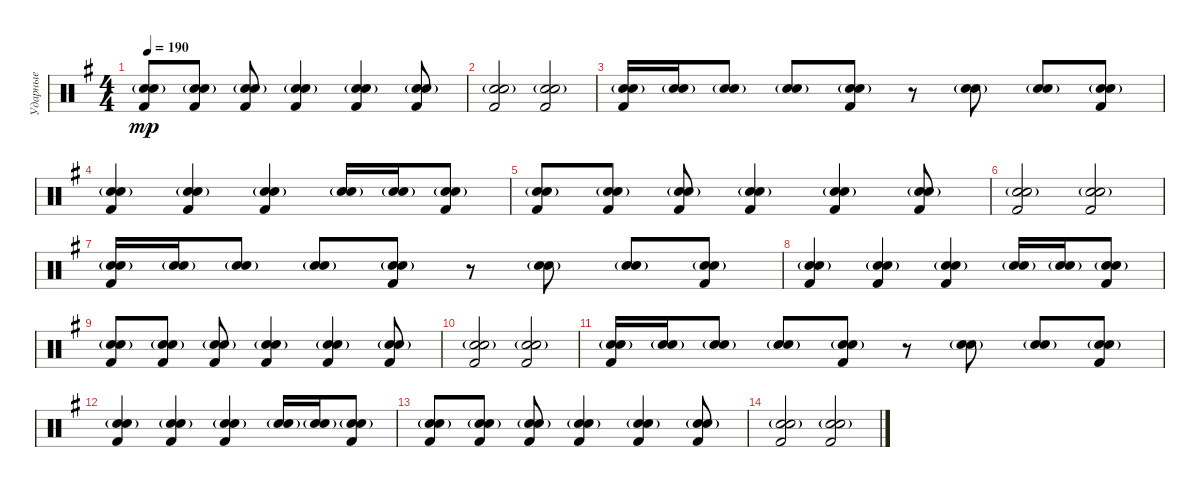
\track ("Ударные" "Ударные") {instrument percussion}
\staff {score}
\articulation defaults
\ts (4 4)
\tempo 190
\clef neutral
\ks g
("Kick (hit) 2" "Snare (hit) 2"{g} "Electric Snare (hit)").8{dy mp} ("Kick (hit) 2" "Snare (hit) 2"{g} "Electric Snare (hit)").8 ("Kick (hit) 2" "Snare (hit) 2"{g} "Electric Snare (hit)").8 ("Kick (hit) 2" "Snare (hit) 2"{g} "Electric Snare (hit)").4 ("Kick (hit) 2" "Snare (hit) 2"{g} "Electric Snare (hit)").4 ("Kick (hit) 2" "Snare (hit) 2"{g} "Electric Snare (hit)").8 |
("Kick (hit) 2" "Snare (hit) 2"{g} "Electric Snare (hit)").2 ("Kick (hit) 2" "Snare (hit) 2"{g} "Electric Snare (hit)").2 |
("Kick (hit) 2" "Snare (hit) 2"{g} "Electric Snare (hit)").16 ("Snare (hit) 2"{g} "Electric Snare (hit)"{g}).16 ("Snare (hit) 2"{g} "Electric Snare (hit)"{g}).8 ("Snare (hit) 2"{g} "Electric Snare (hit)").8 ("Kick (hit) 2" "Snare (hit) 2"{g} "Electric Snare (hit)").8 r.8 ("Snare (hit) 2"{g} "Electric Snare (hit)").8 ("Snare (hit) 2"{g} "Electric Snare (hit)"{g}).8 ("Kick (hit) 2" "Snare (hit) 2"{g} "Electric Snare (hit)").8 |
("Kick (hit) 2" "Snare (hit) 2"{g} "Electric Snare (hit)").4 ("Kick (hit) 2" "Snare (hit) 2"{g} "Electric Snare (hit)").4 ("Kick (hit) 2" "Snare (hit) 2"{g} "Electric Snare (hit)").4 ("Snare (hit) 2"{g} "Electric Snare (hit)"{g}).16 ("Snare (hit) 2"{g} "Electric Snare (hit)"{g}).16 ("Kick (hit) 2" "Snare (hit) 2"{g} "Electric Snare (hit)").8 |
("Kick (hit) 2" "Snare (hit) 2"{g} "Electric Snare (hit)").8 ("Kick (hit) 2" "Snare (hit) 2"{g} "Electric Snare (hit)").8 ("Kick (hit) 2" "Snare (hit) 2"{g} "Electric Snare (hit)").8 ("Kick (hit) 2" "Snare (hit) 2"{g} "Electric Snare (hit)").4 ("Kick (hit) 2" "Snare (hit) 2"{g} "Electric Snare (hit)").4 ("Kick (hit) 2" "Snare (hit) 2"{g} "Electric Snare (hit)").8 |
("Kick (hit) 2" "Snare (hit) 2"{g} "Electric Snare (hit)").2 ("Kick (hit) 2" "Snare (hit) 2"{g} "Electric Snare (hit)").2 |
("Kick (hit) 2" "Snare (hit) 2"{g} "Electric Snare (hit)").16 ("Snare (hit) 2"{g} "Electric Snare (hit)"{g}).16 ("Snare (hit) 2"{g} "Electric Snare (hit)"{g}).8 ("Snare (hit) 2"{g} "Electric Snare (hit)").8 ("Kick (hit) 2" "Snare (hit) 2"{g} "Electric Snare (hit)").8 r.8 ("Snare (hit) 2"{g} "Electric Snare (hit)").8 ("Snare (hit) 2"{g} "Electric Snare (hit)"{g}).8 ("Kick (hit) 2" "Snare (hit) 2"{g} "Electric Snare (hit)").8 |
("Kick (hit) 2" "Snare (hit) 2"{g} "Electric Snare (hit)").4 ("Kick (hit) 2" "Snare (hit) 2"{g} "Electric Snare (hit)").4 ("Kick (hit) 2" "Snare (hit) 2"{g} "Electric Snare (hit)").4 ("Snare (hit) 2"{g} "Electric Snare (hit)"{g}).16 ("Snare (hit) 2"{g} "Electric Snare (hit)"{g}).16 ("Kick (hit) 2" "Snare (hit) 2"{g} "Electric Snare (hit)").8 |
("Kick (hit) 2" "Snare (hit) 2"{g} "Electric Snare (hit)").8 ("Kick (hit) 2" "Snare (hit) 2"{g} "Electric Snare (hit)").8 ("Kick (hit) 2" "Snare (hit) 2"{g} "Electric Snare (hit)").8 ("Kick (hit) 2" "Snare (hit) 2"{g} "Electric Snare (hit)").4 ("Kick (hit) 2" "Snare (hit) 2"{g} "Electric Snare (hit)").4 ("Kick (hit) 2" "Snare (hit) 2"{g} "Electric Snare (hit)").8 |
("Kick (hit) 2" "Snare (hit) 2"{g} "Electric Snare (hit)").2 ("Kick (hit) 2" "Snare (hit) 2"{g} "Electric Snare (hit)").2 |
("Kick (hit) 2" "Snare (hit) 2"{g} "Electric Snare (hit)").16 ("Snare (hit) 2"{g} "Electric Snare (hit)"{g}).16 ("Snare (hit) 2"{g} "Electric Snare (hit)"{g}).8 ("Snare (hit) 2"{g} "Electric Snare (hit)").8 ("Kick (hit) 2" "Snare (hit) 2"{g} "Electric Snare (hit)").8 r.8 ("Snare (hit) 2"{g} "Electric Snare (hit)").8 ("Snare (hit) 2"{g} "Electric Snare (hit)"{g}).8 ("Kick (hit) 2" "Snare (hit) 2"{g} "Electric Snare (hit)").8 |
("Kick (hit) 2" "Snare (hit) 2"{g} "Electric Snare (hit)").4 ("Kick (hit) 2" "Snare (hit) 2"{g} "Electric Snare (hit)").4 ("Kick (hit) 2" "Snare (hit) 2"{g} "Electric Snare (hit)").4 ("Snare (hit) 2"{g} "Electric Snare (hit)"{g}).16 ("Snare (hit) 2"{g} "Electric Snare (hit)"{g}).16 ("Kick (hit) 2" "Snare (hit) 2"{g} "Electric Snare (hit)").8 |
("Kick (hit) 2" "Snare (hit) 2"{g} "Electric Snare (hit)").8 ("Kick (hit) 2" "Snare (hit) 2"{g} "Electric Snare (hit)").8 ("Kick (hit) 2" "Snare (hit) 2"{g} "Electric Snare (hit)").8 ("Kick (hit) 2" "Snare (hit) 2"{g} "Electric Snare (hit)").4 ("Kick (hit) 2" "Snare (hit) 2"{g} "Electric Snare (hit)").4 ("Kick (hit) 2" "Snare (hit) 2"{g} "Electric Snare (hit)").8 |
("Kick (hit) 2" "Snare (hit) 2"{g} "Electric Snare (hit)").2 ("Kick (hit) 2" "Snare (hit) 2"{g} "Electric Snare (hit)").2
